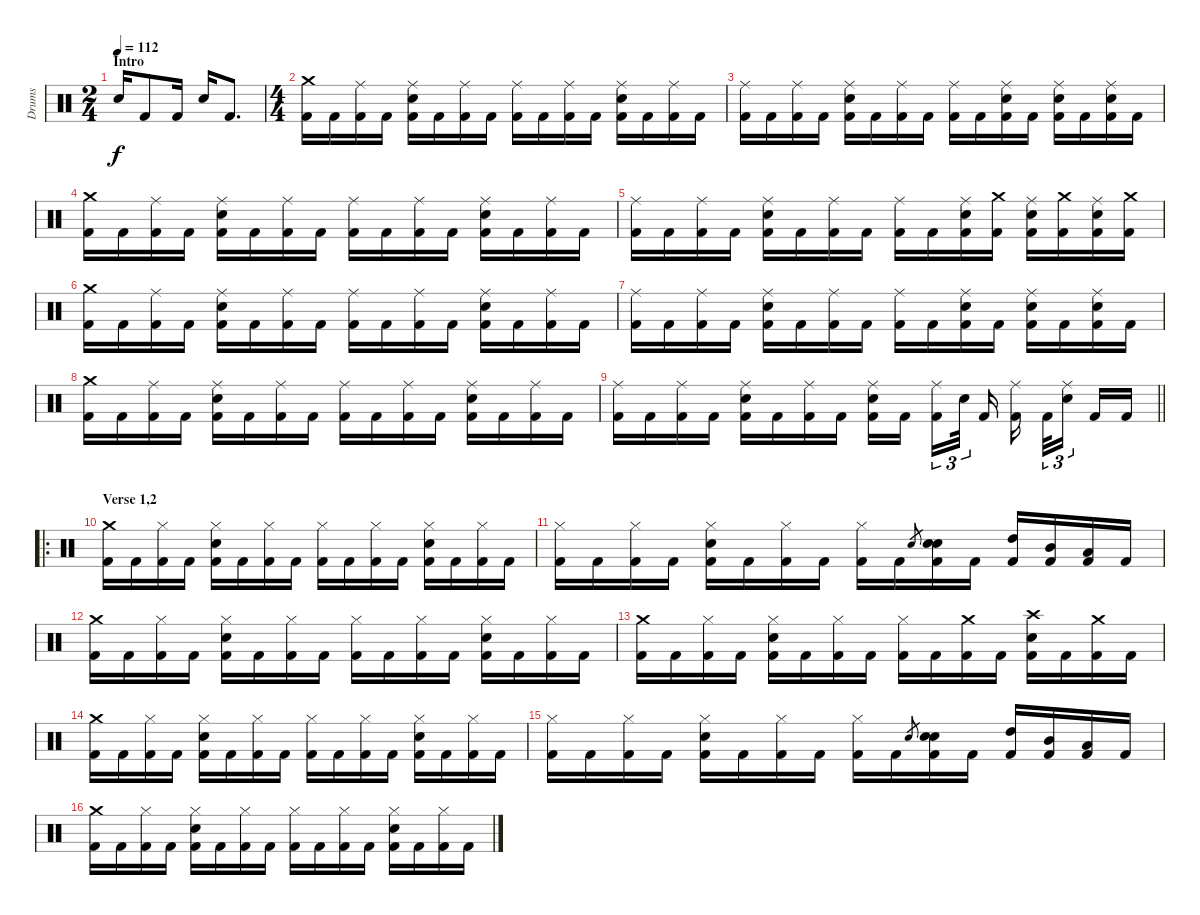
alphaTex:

\track ("Drums" "Drums") {instrument percussion}
\staff {score}
\articulation defaults
\ts (2 4)
\section ("" "Intro")
\tempo 112
\clef neutral
\ks c "Snare (hit) 2".16{dy f} "Kick (hit) 2".8 "Kick (hit) 2".16 "Snare (hit) 2".16 "Kick (hit) 2".8{d}
|
\ts (4 4)
("Kick (hit) 2" "Crash medium (hit)").16 "Kick (hit) 2".16 ("Kick (hit) 2" "Ride (middle)").16 "Kick (hit) 2".16 ("Kick (hit) 2" "Snare (hit) 2" "Ride (middle)").16 "Kick (hit) 2".16 ("Kick (hit) 2" "Ride (middle)").16 "Kick (hit) 2".16 ("Kick (hit) 2" "Ride (middle)").16 "Kick (hit) 2".16 ("Kick (hit) 2" "Ride (middle)").16 "Kick (hit) 2".16 ("Kick (hit) 2" "Snare (hit) 2" "Ride (middle)").16 "Kick (hit) 2".16 ("Kick (hit) 2" "Ride (middle)").16 "Kick (hit) 2".16 |
("Kick (hit) 2" "Ride (middle)").16 "Kick (hit) 2".16 ("Kick (hit) 2" "Ride (middle)").16 "Kick (hit) 2".16 ("Kick (hit) 2" "Snare (hit) 2" "Ride (middle)").16 "Kick (hit) 2".16 ("Kick (hit) 2" "Ride (middle)").16 "Kick (hit) 2".16 ("Kick (hit) 2" "Ride (middle)").16 "Kick (hit) 2".16 ("Kick (hit) 2" "Snare (hit) 2" "Ride (middle)").16 "Kick (hit) 2".16 ("Kick (hit) 2" "Snare (hit) 2" "Ride (middle)").16 "Kick (hit) 2".16 ("Kick (hit) 2" "Snare (hit) 2" "Ride (middle)").16 "Kick (hit) 2".16 |
("Kick (hit) 2" "Crash medium (hit)").16 "Kick (hit) 2".16 ("Kick (hit) 2" "Ride (middle)").16 "Kick (hit) 2".16 ("Kick (hit) 2" "Snare (hit) 2" "Ride (middle)").16 "Kick (hit) 2".16 ("Kick (hit) 2" "Ride (middle)").16 "Kick (hit) 2".16 ("Kick (hit) 2" "Ride (middle)").16 "Kick (hit) 2".16 ("Kick (hit) 2" "Ride (middle)").16 "Kick (hit) 2".16 ("Kick (hit) 2" "Snare (hit) 2" "Ride (middle)").16 "Kick (hit) 2".16 ("Kick (hit) 2" "Ride (middle)").16 "Kick (hit) 2".16 |
("Kick (hit) 2" "Ride (middle)").16 "Kick (hit) 2".16 ("Kick (hit) 2" "Ride (middle)").16 "Kick (hit) 2".16 ("Kick (hit) 2" "Snare (hit) 2" "Ride (middle)").16 "Kick (hit) 2".16 ("Kick (hit) 2" "Ride (middle)").16 "Kick (hit) 2".16 ("Kick (hit) 2" "Ride (middle)").16 "Kick (hit) 2".16 ("Kick (hit) 2" "Snare (hit) 2" "Ride (middle)").16 ("Kick (hit) 2" "Crash medium (hit)").16 ("Kick (hit) 2" "Snare (hit) 2" "Ride (middle)").16 ("Kick (hit) 2" "Crash medium (hit)").16 ("Kick (hit) 2" "Snare (hit) 2" "Ride (middle)").16 ("Kick (hit) 2" "Crash medium (hit)").16 |
("Kick (hit) 2" "Crash medium (hit)").16 "Kick (hit) 2".16 ("Kick (hit) 2" "Ride (middle)").16 "Kick (hit) 2".16 ("Kick (hit) 2" "Snare (hit) 2" "Ride (middle)").16 "Kick (hit) 2".16 ("Kick (hit) 2" "Ride (middle)").16 "Kick (hit) 2".16 ("Kick (hit) 2" "Ride (middle)").16 "Kick (hit) 2".16 ("Kick (hit) 2" "Ride (middle)").16 "Kick (hit) 2".16 ("Kick (hit) 2" "Snare (hit) 2" "Ride (middle)").16 "Kick (hit) 2".16 ("Kick (hit) 2" "Ride (middle)").16 "Kick (hit) 2".16 |
("Kick (hit) 2" "Ride (middle)").16 "Kick (hit) 2".16 ("Kick (hit) 2" "Ride (middle)").16 "Kick (hit) 2".16 ("Kick (hit) 2" "Snare (hit) 2" "Ride (middle)").16 "Kick (hit) 2".16 ("Kick (hit) 2" "Ride (middle)").16 "Kick (hit) 2".16 ("Kick (hit) 2" "Ride (middle)").16 "Kick (hit) 2".16 ("Kick (hit) 2" "Snare (hit) 2" "Ride (middle)").16 "Kick (hit) 2".16 ("Kick (hit) 2" "Snare (hit) 2" "Ride (middle)").16 "Kick (hit) 2".16 ("Kick (hit) 2" "Snare (hit) 2" "Ride (middle)").16 "Kick (hit) 2".16 |
("Kick (hit) 2" "Crash medium (hit)").16 "Kick (hit) 2".16 ("Kick (hit) 2" "Ride (middle)").16 "Kick (hit) 2".16 ("Kick (hit) 2" "Snare (hit) 2" "Ride (middle)").16 "Kick (hit) 2".16 ("Kick (hit) 2" "Ride (middle)").16 "Kick (hit) 2".16 ("Kick (hit) 2" "Ride (middle)").16 "Kick (hit) 2".16 ("Kick (hit) 2" "Ride (middle)").16 "Kick (hit) 2".16 ("Kick (hit) 2" "Snare (hit) 2" "Ride (middle)").16 "Kick (hit) 2".16 ("Kick (hit) 2" "Ride (middle)").16 "Kick (hit) 2".16 |
\barLineRight lightlight
("Kick (hit) 2" "Ride (middle)").16 "Kick (hit) 2".16 ("Kick (hit) 2" "Ride (middle)").16 "Kick (hit) 2".16 ("Kick (hit) 2" "Snare (hit) 2" "Ride (middle)").16 "Kick (hit) 2".16 ("Kick (hit) 2" "Ride (middle)").16 "Kick (hit) 2".16 ("Kick (hit) 2" "Ride (middle)" "Snare (hit) 2").16 "Kick (hit) 2".16{beam splitsecondary} ("Kick (hit) 2" "Ride (middle)").16{tu (3 2)} "Snare (hit) 2".32{tu (3 2) beam splitsecondary} "Kick (hit) 2".16 ("Kick (hit) 2" "Ride (middle)").16{beam splitsecondary} "Kick (hit) 2".32{tu (3 2)} ("Snare (hit) 2" "Ride (middle)").16{tu (3 2) beam splitsecondary} "Kick (hit) 2".16 "Kick (hit) 2".16 |
\ro
\section ("" "Verse 1,2")
("Kick (hit) 2" "Crash medium (hit)").16 "Kick (hit) 2".16 ("Kick (hit) 2" "Hi-Hat (closed)").16 "Kick (hit) 2".16 ("Kick (hit) 2" "Hi-Hat (closed)" "Snare (hit) 2").16 "Kick (hit) 2".16 ("Kick (hit) 2" "Hi-Hat (closed)").16 "Kick (hit) 2".16 ("Kick (hit) 2" "Hi-Hat (closed)").16 "Kick (hit) 2".16 ("Kick (hit) 2" "Hi-Hat (closed)").16 "Kick (hit) 2".16 ("Kick (hit) 2" "Hi-Hat (closed)" "Snare (hit) 2").16 "Kick (hit) 2".16 ("Kick (hit) 2" "Hi-Hat (closed)").16 "Kick (hit) 2".16 |
("Kick (hit) 2" "Hi-Hat (closed)").16 "Kick (hit) 2".16 ("Kick (hit) 2" "Hi-Hat (closed)").16 "Kick (hit) 2".16 ("Kick (hit) 2" "Hi-Hat (closed)" "Snare (hit) 2").16 "Kick (hit) 2".16 ("Kick (hit) 2" "Hi-Hat (closed)").16 "Kick (hit) 2".16 ("Kick (hit) 2" "Hi-Hat (closed)").16 "Kick (hit) 2".16 "Snare (hit) 2".8{gr} ("Kick (hit) 2" "Snare (hit) 2" "Snare (hit) 2").16 "Kick (hit) 2".16 ("Kick (hit) 2" "High Tom (hit)").16 ("Kick (hit) 2" "Mid Tom (hit)").16 ("Kick (hit) 2" "Low Tom (hit)").16 "Kick (hit) 2".16 |
("Kick (hit) 2" "Crash medium (hit)").16 "Kick (hit) 2".16 ("Kick (hit) 2" "Hi-Hat (closed)").16 "Kick (hit) 2".16 ("Kick (hit) 2" "Hi-Hat (closed)" "Snare (hit) 2").16 "Kick (hit) 2".16 ("Kick (hit) 2" "Hi-Hat (closed)").16 "Kick (hit) 2".16 ("Kick (hit) 2" "Hi-Hat (closed)").16 "Kick (hit) 2".16 ("Kick (hit) 2" "Hi-Hat (closed)").16 "Kick (hit) 2".16 ("Kick (hit) 2" "Hi-Hat (closed)" "Snare (hit) 2").16 "Kick (hit) 2".16 ("Kick (hit) 2" "Hi-Hat (closed)").16 "Kick (hit) 2".16 |
("Kick (hit) 2" "Crash medium (hit)").16 "Kick (hit) 2".16 ("Kick (hit) 2" "Hi-Hat (closed)").16 "Kick (hit) 2".16 ("Kick (hit) 2" "Hi-Hat (closed)" "Snare (hit) 2").16 "Kick (hit) 2".16 ("Kick (hit) 2" "Hi-Hat (closed)").16 "Kick (hit) 2".16 ("Kick (hit) 2" "Hi-Hat (closed)").16 "Kick (hit) 2".16 ("Kick (hit) 2" "Crash medium (hit)").16 "Kick (hit) 2".16 ("Kick (hit) 2" "Crash high (hit)" "Snare (hit) 2").16 "Kick (hit) 2".16 ("Kick (hit) 2" "Crash medium (hit)").16 "Kick (hit) 2".16 |
("Kick (hit) 2" "Crash medium (hit)").16 "Kick (hit) 2".16 ("Kick (hit) 2" "Hi-Hat (closed)").16 "Kick (hit) 2".16 ("Kick (hit) 2" "Hi-Hat (closed)" "Snare (hit) 2").16 "Kick (hit) 2".16 ("Kick (hit) 2" "Hi-Hat (closed)").16 "Kick (hit) 2".16 ("Kick (hit) 2" "Hi-Hat (closed)").16 "Kick (hit) 2".16 ("Kick (hit) 2" "Hi-Hat (closed)").16 "Kick (hit) 2".16 ("Kick (hit) 2" "Hi-Hat (closed)" "Snare (hit) 2").16 "Kick (hit) 2".16 ("Kick (hit) 2" "Hi-Hat (closed)").16 "Kick (hit) 2".16 |
("Kick (hit) 2" "Hi-Hat (closed)").16 "Kick (hit) 2".16 ("Kick (hit) 2" "Hi-Hat (closed)").16 "Kick (hit) 2".16 ("Kick (hit) 2" "Hi-Hat (closed)" "Snare (hit) 2").16 "Kick (hit) 2".16 ("Kick (hit) 2" "Hi-Hat (closed)").16 "Kick (hit) 2".16 ("Kick (hit) 2" "Hi-Hat (closed)").16 "Kick (hit) 2".16 "Snare (hit) 2".8{gr} ("Kick (hit) 2" "Snare (hit) 2" "Snare (hit) 2").16 "Kick (hit) 2".16 ("Kick (hit) 2" "High Tom (hit)").16 ("Kick (hit) 2" "Mid Tom (hit)").16 ("Kick (hit) 2" "Low Tom (hit)").16 "Kick (hit) 2".16 |
("Kick (hit) 2" "Crash medium (hit)").16 "Kick (hit) 2".16 ("Kick (hit) 2" "Hi-Hat (closed)").16 "Kick (hit) 2".16 ("Kick (hit) 2" "Hi-Hat (closed)" "Snare (hit) 2").16 "Kick (hit) 2".16 ("Kick (hit) 2" "Hi-Hat (closed)").16 "Kick (hit) 2".16 ("Kick (hit) 2" "Hi-Hat (closed)").16 "Kick (hit) 2".16 ("Kick (hit) 2" "Hi-Hat (closed)").16 "Kick (hit) 2".16 ("Kick (hit) 2" "Hi-Hat (closed)" "Snare (hit) 2").16 "Kick (hit) 2".16 ("Kick (hit) 2" "Hi-Hat (closed)").16 "Kick (hit) 2".16
